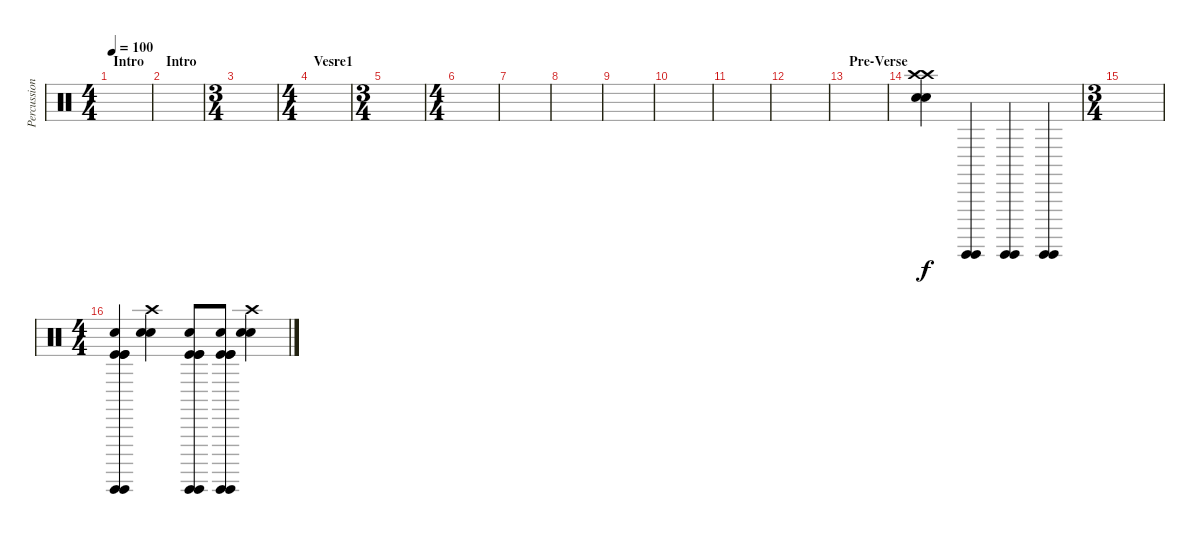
\track ("Percussion" "Percussion") {instrument percussion}
\staff {score}
\articulation defaults
\ts (4 4)
\section ("" "Intro")
\tempo 100
\clef neutral
\ks c
|
\section ("" "Intro")
|
\ts (3 4)
\section ("" "")
|
\ts (4 4)
\section ("" "Vesre1")
|
\ts (3 4)
|
\ts (4 4)
|
|
|
|
|
|
|
\section ("" "Pre-Verse")
|
("Crash high (hit)" "Crash high (hit)" "Electric Snare (hit)" "Electric Snare (hit)").4 ("Guiro (hit)" "Guiro (hit)").4 ("Guiro (hit)" "Guiro (hit)").4 ("Guiro (hit)" "Guiro (hit)").4 |
\ts (3 4)
|
\ts (4 4)
("Electric Snare (hit)" "Kick (hit)" "Kick (hit)" "Kick (hit)" "Guiro (hit)" "Guiro (hit)").4 ("Electric Snare (hit)" "Electric Snare (hit)" "Crash high (hit)").4 ("Electric Snare (hit)" "Kick (hit)" "Kick (hit)" "Kick (hit)" "Guiro (hit)" "Guiro (hit)").8 ("Electric Snare (hit)" "Kick (hit)" "Kick (hit)" "Kick (hit)" "Guiro (hit)" "Guiro (hit)").8 ("Electric Snare (hit)" "Electric Snare (hit)" "Crash high (hit)").4
